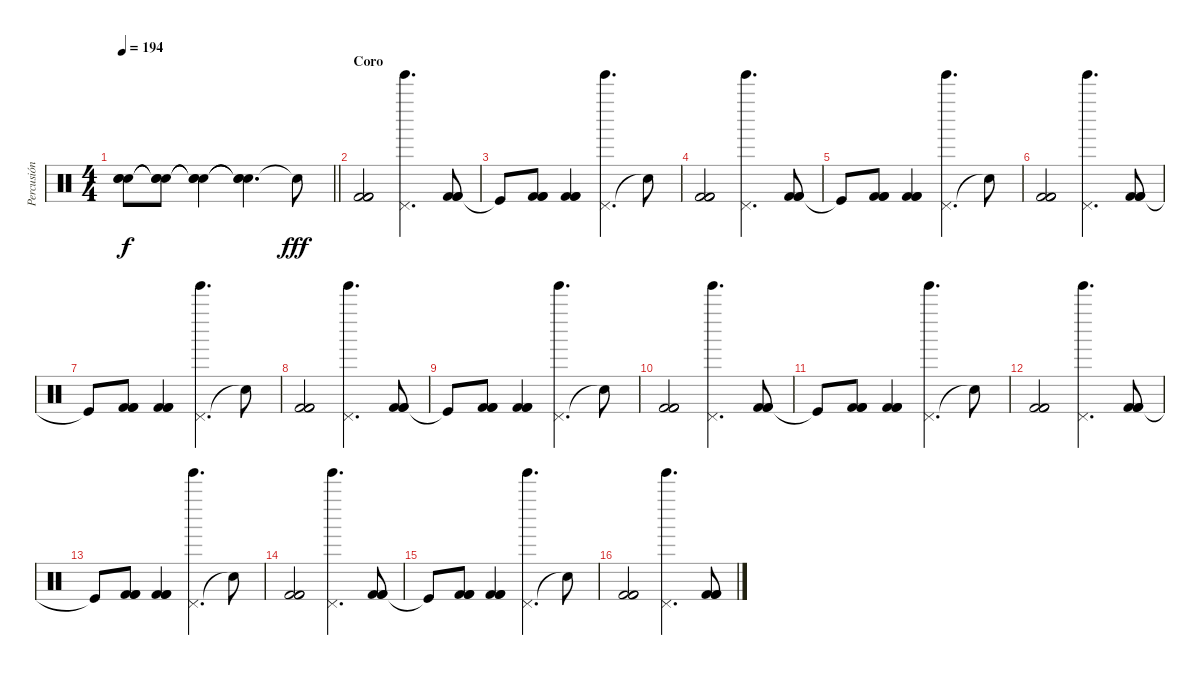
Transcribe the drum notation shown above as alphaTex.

\track ("Percusión" "Percusión") {instrument percussion}
\staff {score}
\articulation defaults
\ts (4 4)
\tempo 194
\clef neutral
\barLineRight lightlight
\ks c
("Snare (hit)"{t} "Snare (hit)"{t} "Snare (hit)"{t}).8{dy f} ("Snare (hit)"{t} "Snare (hit)"{t} "Snare (hit)"{t}).8 ("Snare (hit)"{t} "Snare (hit)"{t} "Snare (hit)"{t}).4 ("Snare (hit)"{t} "Snare (hit)"{t} "Snare (hit)"{t}).4{d} "Snare (hit)"{t}.8{dy fff} |
\section ("" "Coro")
("Kick (hit) 2" "Kick (hit) 2" "Kick (hit) 2").2 ("Pedal Hi-Hat (hit)" "Tinkle Bell (hit)").4{d} ("Kick (hit) 2" "Kick (hit) 2" "Kick (hit) 2").8 |
"Kick (hit)"{t}.8 ("Kick (hit) 2" "Kick (hit) 2" "Kick (hit) 2").8 ("Kick (hit) 2" "Kick (hit) 2" "Kick (hit) 2").4 ("Pedal Hi-Hat (hit)" "Tinkle Bell (hit)").4{d} "Snare (hit)"{t}.8 |
("Kick (hit) 2" "Kick (hit) 2" "Kick (hit) 2").2 ("Pedal Hi-Hat (hit)" "Tinkle Bell (hit)").4{d} ("Kick (hit) 2" "Kick (hit) 2" "Kick (hit) 2").8 |
"Kick (hit)"{t}.8 ("Kick (hit) 2" "Kick (hit) 2" "Kick (hit) 2").8 ("Kick (hit) 2" "Kick (hit) 2" "Kick (hit) 2").4 ("Pedal Hi-Hat (hit)" "Tinkle Bell (hit)").4{d} "Snare (hit)"{t}.8 |
("Kick (hit) 2" "Kick (hit) 2" "Kick (hit) 2").2 ("Pedal Hi-Hat (hit)" "Tinkle Bell (hit)").4{d} ("Kick (hit) 2" "Kick (hit) 2" "Kick (hit) 2").8 |
"Kick (hit)"{t}.8 ("Kick (hit) 2" "Kick (hit) 2" "Kick (hit) 2").8 ("Kick (hit) 2" "Kick (hit) 2" "Kick (hit) 2").4 ("Pedal Hi-Hat (hit)" "Tinkle Bell (hit)").4{d} "Snare (hit)"{t}.8 |
("Kick (hit) 2" "Kick (hit) 2" "Kick (hit) 2").2 ("Pedal Hi-Hat (hit)" "Tinkle Bell (hit)").4{d} ("Kick (hit) 2" "Kick (hit) 2" "Kick (hit) 2").8 |
"Kick (hit)"{t}.8 ("Kick (hit) 2" "Kick (hit) 2" "Kick (hit) 2").8 ("Kick (hit) 2" "Kick (hit) 2" "Kick (hit) 2").4 ("Pedal Hi-Hat (hit)" "Tinkle Bell (hit)").4{d} "Snare (hit)"{t}.8 |
("Kick (hit) 2" "Kick (hit) 2" "Kick (hit) 2").2 ("Pedal Hi-Hat (hit)" "Tinkle Bell (hit)").4{d} ("Kick (hit) 2" "Kick (hit) 2" "Kick (hit) 2").8 |
"Kick (hit)"{t}.8 ("Kick (hit) 2" "Kick (hit) 2" "Kick (hit) 2").8 ("Kick (hit) 2" "Kick (hit) 2" "Kick (hit) 2").4 ("Pedal Hi-Hat (hit)" "Tinkle Bell (hit)").4{d} "Snare (hit)"{t}.8 |
("Kick (hit) 2" "Kick (hit) 2" "Kick (hit) 2").2 ("Pedal Hi-Hat (hit)" "Tinkle Bell (hit)").4{d} ("Kick (hit) 2" "Kick (hit) 2" "Kick (hit) 2").8 |
"Kick (hit)"{t}.8 ("Kick (hit) 2" "Kick (hit) 2" "Kick (hit) 2").8 ("Kick (hit) 2" "Kick (hit) 2" "Kick (hit) 2").4 ("Pedal Hi-Hat (hit)" "Tinkle Bell (hit)").4{d} "Snare (hit)"{t}.8 |
("Kick (hit) 2" "Kick (hit) 2" "Kick (hit) 2").2 ("Pedal Hi-Hat (hit)" "Tinkle Bell (hit)").4{d} ("Kick (hit) 2" "Kick (hit) 2" "Kick (hit) 2").8 |
"Kick (hit)"{t}.8 ("Kick (hit) 2" "Kick (hit) 2" "Kick (hit) 2").8 ("Kick (hit) 2" "Kick (hit) 2" "Kick (hit) 2").4 ("Pedal Hi-Hat (hit)" "Tinkle Bell (hit)").4{d} "Snare (hit)"{t}.8 |
("Kick (hit) 2" "Kick (hit) 2" "Kick (hit) 2").2 ("Pedal Hi-Hat (hit)" "Tinkle Bell (hit)").4{d} ("Kick (hit) 2" "Kick (hit) 2" "Kick (hit) 2").8
